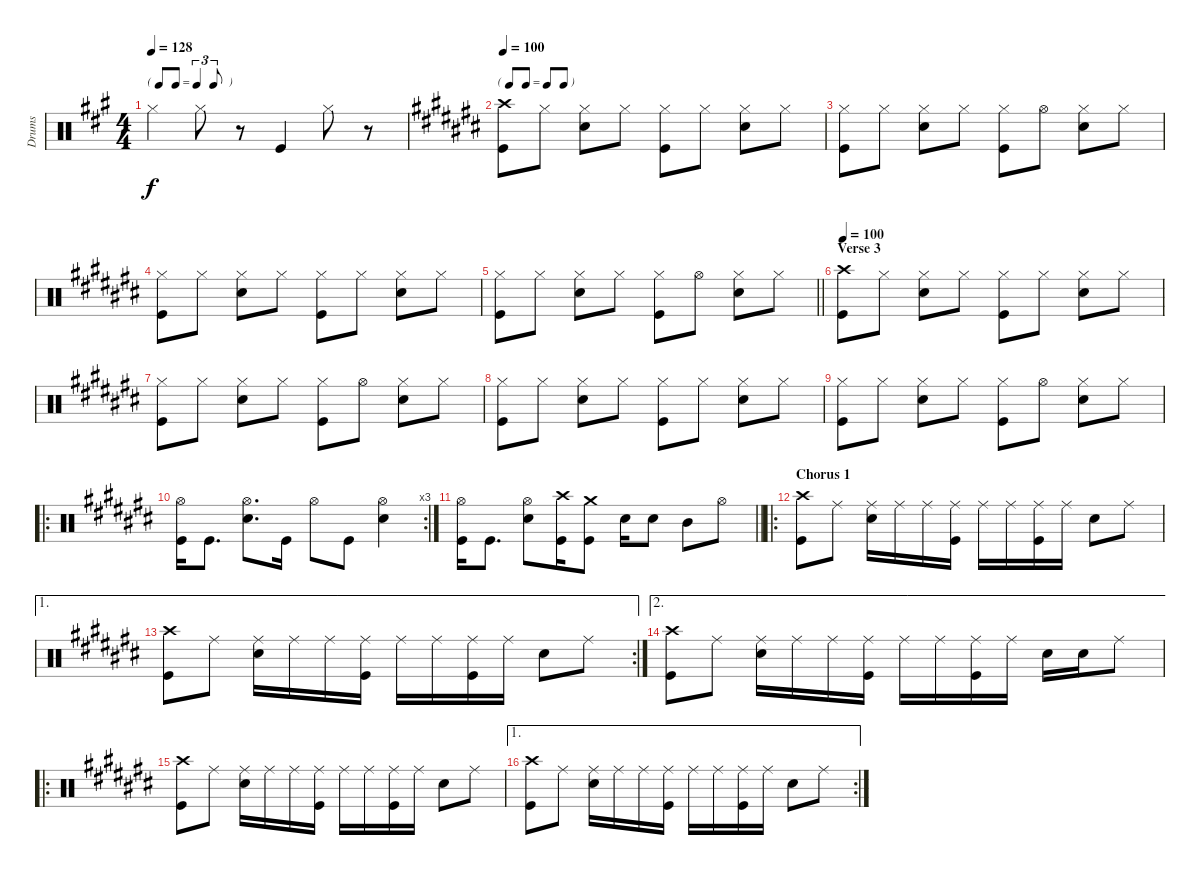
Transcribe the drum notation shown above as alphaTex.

\track ("Drums" "Drums") {instrument percussion}
\staff {score}
\articulation defaults
\ts (4 4)
\tf triplet8th
\tempo 128
\clef neutral
\ks a "Hi-Hat (closed)".4{dy f} "Hi-Hat (closed)".8
r.8 "Kick (hit)".4 "Hi-Hat (closed)".8 r.8 |
\tf none
\tempo 100
\ks c#
("Crash high (hit)" "Kick (hit)").8 "Hi-Hat (closed)".8 ("Hi-Hat (closed)" "Snare (hit) 2").8 "Hi-Hat (closed)".8 ("Hi-Hat (closed)" "Kick (hit)").8 "Hi-Hat (closed)".8 ("Hi-Hat (closed)" "Snare (hit) 2").8 "Hi-Hat (closed)".8 |
("Hi-Hat (closed)" "Kick (hit)").8 "Hi-Hat (closed)".8 ("Hi-Hat (closed)" "Snare (hit) 2").8 "Hi-Hat (closed)".8 ("Hi-Hat (closed)" "Kick (hit)").8 "Hi-Hat (open)".8 ("Hi-Hat (closed)" "Snare (hit) 2").8 "Hi-Hat (closed)".8 |
("Hi-Hat (closed)" "Kick (hit)").8 "Hi-Hat (closed)".8 ("Hi-Hat (closed)" "Snare (hit) 2").8 "Hi-Hat (closed)".8 ("Hi-Hat (closed)" "Kick (hit)").8 "Hi-Hat (closed)".8 ("Hi-Hat (closed)" "Snare (hit) 2").8 "Hi-Hat (closed)".8 |
\barLineRight lightlight
("Hi-Hat (closed)" "Kick (hit)").8 "Hi-Hat (closed)".8 ("Hi-Hat (closed)" "Snare (hit) 2").8 "Hi-Hat (closed)".8 ("Hi-Hat (closed)" "Kick (hit)").8 "Hi-Hat (open)".8 ("Hi-Hat (closed)" "Snare (hit) 2").8 "Hi-Hat (closed)".8 |
\section ("" "Verse 3")
\tempo 100
("Crash high (hit)" "Kick (hit)").8 "Hi-Hat (closed)".8 ("Hi-Hat (closed)" "Snare (hit) 2").8 "Hi-Hat (closed)".8 ("Hi-Hat (closed)" "Kick (hit)").8 "Hi-Hat (closed)".8 ("Hi-Hat (closed)" "Snare (hit) 2").8 "Hi-Hat (closed)".8 |
("Hi-Hat (closed)" "Kick (hit)").8 "Hi-Hat (closed)".8 ("Hi-Hat (closed)" "Snare (hit) 2").8 "Hi-Hat (closed)".8 ("Hi-Hat (closed)" "Kick (hit)").8 "Hi-Hat (open)".8 ("Hi-Hat (closed)" "Snare (hit) 2").8 "Hi-Hat (closed)".8 |
("Hi-Hat (closed)" "Kick (hit)").8 "Hi-Hat (closed)".8 ("Hi-Hat (closed)" "Snare (hit) 2").8 "Hi-Hat (closed)".8 ("Hi-Hat (closed)" "Kick (hit)").8 "Hi-Hat (closed)".8 ("Hi-Hat (closed)" "Snare (hit) 2").8 "Hi-Hat (closed)".8 |
("Hi-Hat (closed)" "Kick (hit)").8 "Hi-Hat (closed)".8 ("Hi-Hat (closed)" "Snare (hit) 2").8 "Hi-Hat (closed)".8 ("Hi-Hat (closed)" "Kick (hit)").8 "Hi-Hat (open)".8 ("Hi-Hat (closed)" "Snare (hit) 2").8 "Hi-Hat (closed)".8 |
\ro
\rc 3
("Hi-Hat (open)" "Kick (hit)").16 "Kick (hit)".8{d} ("Hi-Hat (open)" "Snare (hit) 2").8{d} "Kick (hit)".16 "Hi-Hat (open)".8 "Kick (hit)".8 ("Hi-Hat (open)" "Snare (hit) 2").4 |
\barLineRight lightlight
("Hi-Hat (open)" "Kick (hit)").16 "Kick (hit)".8{d} ("Hi-Hat (open)" "Snare (hit) 2").8 ("Crash high (hit)" "Kick (hit)").16 ("Crash medium (hit)" "Kick (hit)").8 "Snare (hit) 2".16 "Snare (hit) 2".8 "Mid Tom (hit)".8 "Hi-Hat (open)".8 |
\ro
\section ("" "Chorus 1")
("Crash high (hit)" "Kick (hit)").8 "Ride (middle)".8 ("Ride (middle)" "Snare (hit) 2").16 "Ride (middle)".16 "Ride (middle)".16 ("Ride (middle)" "Kick (hit)").16 "Ride (middle)".16 "Ride (middle)".16 ("Ride (middle)" "Kick (hit)").16 "Ride (middle)".16 "Snare (hit) 2".8 "Ride (middle)".8 |
\ae 1
\rc 2
("Crash high (hit)" "Kick (hit)").8 "Ride (middle)".8 ("Ride (middle)" "Snare (hit) 2").16 "Ride (middle)".16 "Ride (middle)".16 ("Ride (middle)" "Kick (hit)").16 "Ride (middle)".16 "Ride (middle)".16 ("Ride (middle)" "Kick (hit)").16 "Ride (middle)".16 "Snare (hit) 2".8 "Ride (middle)".8 |
\ae 2
("Crash high (hit)" "Kick (hit)").8 "Ride (middle)".8 ("Ride (middle)" "Snare (hit) 2").16 "Ride (middle)".16 "Ride (middle)".16 ("Ride (middle)" "Kick (hit)").16 "Ride (middle)".16 "Ride (middle)".16 ("Ride (middle)" "Kick (hit)").16 "Ride (middle)".16 "Snare (hit) 2".16 "Snare (hit) 2".16 "Ride (middle)".8 |
\ro
("Crash high (hit)" "Kick (hit)").8 "Ride (middle)".8 ("Ride (middle)" "Snare (hit) 2").16 "Ride (middle)".16 "Ride (middle)".16 ("Ride (middle)" "Kick (hit)").16 "Ride (middle)".16 "Ride (middle)".16 ("Ride (middle)" "Kick (hit)").16 "Ride (middle)".16 "Snare (hit) 2".8 "Ride (middle)".8 |
\ae 1
\rc 2
("Crash high (hit)" "Kick (hit)").8 "Ride (middle)".8 ("Ride (middle)" "Snare (hit) 2").16 "Ride (middle)".16 "Ride (middle)".16 ("Ride (middle)" "Kick (hit)").16 "Ride (middle)".16 "Ride (middle)".16 ("Ride (middle)" "Kick (hit)").16 "Ride (middle)".16 "Snare (hit) 2".8 "Ride (middle)".8
